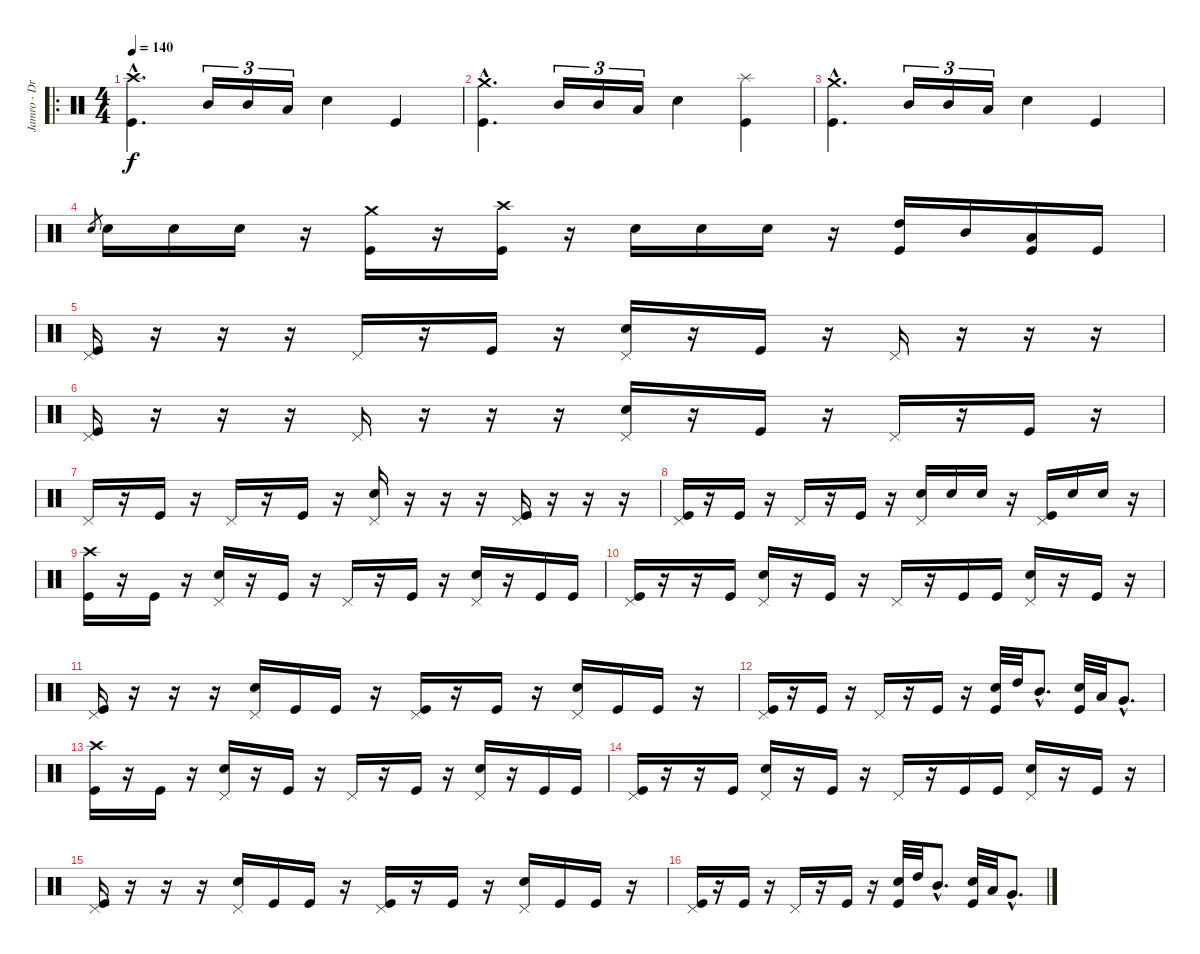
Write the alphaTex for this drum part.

\track ("Jamro - Drums" "Jamro - Dr") {instrument percussion}
\staff {score}
\articulation defaults
\ro
\ts (4 4)
\tempo 140
\clef neutral
\ks c
("Crash high (hit)"{hac} "Kick (hit)"{hac}).4{d dy f} "Mid Tom (hit)".16{tu (3 2)} "Mid Tom (hit)".16{tu (3 2)} "Low Tom (hit)".16{tu (3 2)} "Snare (hit) 2".4 "Kick (hit)".4 |
("Crash medium (hit)"{hac} "Kick (hit)"{hac}).4{d} "Mid Tom (hit)".16{tu (3 2)} "Mid Tom (hit)".16{tu (3 2)} "Low Tom (hit)".16{tu (3 2)} "Snare (hit) 2".4 ("Kick (hit)" "Splash (hit)").4 |
("Crash medium (hit)"{hac} "Kick (hit)"{hac}).4{d} "Mid Tom (hit)".16{tu (3 2)} "Mid Tom (hit)".16{tu (3 2)} "Low Tom (hit)".16{tu (3 2)} "Snare (hit) 2".4 "Kick (hit)".4 |
"Snare (hit) 2".8{gr} "Electric Snare (hit)".16 "Electric Snare (hit)".16 "Electric Snare (hit)".16 r.16 ("Kick (hit)" "Crash medium (hit)").16 r.16 ("Kick (hit)" "Crash high (hit)").16 r.16 "Electric Snare (hit)".16 "Electric Snare (hit)".16 "Electric Snare (hit)".16 r.16 ("Kick (hit)" "High Tom (hit)").16 "Mid Tom (hit)".16 ("Kick (hit)" "Low Tom (hit)").16 "Kick (hit)".16 |
("Kick (hit)" "Pedal Hi-Hat (hit)").16 r.16 r.16 r.16 "Pedal Hi-Hat (hit)".16 r.16 "Kick (hit)".16 r.16 ("Electric Snare (hit)" "Pedal Hi-Hat (hit)").16 r.16 "Kick (hit)".16 r.16 "Pedal Hi-Hat (hit)".16 r.16 r.16 r.16 |
("Kick (hit)" "Pedal Hi-Hat (hit)").16 r.16 r.16 r.16 "Pedal Hi-Hat (hit)".16 r.16 r.16 r.16 ("Electric Snare (hit)" "Pedal Hi-Hat (hit)").16 r.16 "Kick (hit)".16 r.16 "Pedal Hi-Hat (hit)".16 r.16 "Kick (hit)".16 r.16 |
"Pedal Hi-Hat (hit)".16 r.16 "Kick (hit)".16 r.16 "Pedal Hi-Hat (hit)".16 r.16 "Kick (hit)".16 r.16 ("Electric Snare (hit)" "Pedal Hi-Hat (hit)").16 r.16 r.16 r.16 ("Kick (hit)" "Pedal Hi-Hat (hit)").16 r.16 r.16 r.16 |
("Kick (hit)" "Pedal Hi-Hat (hit)").16 r.16 "Kick (hit)".16 r.16 "Pedal Hi-Hat (hit)".16 r.16 "Kick (hit)".16 r.16 ("Electric Snare (hit)" "Pedal Hi-Hat (hit)").16 "Electric Snare (hit)".16 "Electric Snare (hit)".16 r.16 ("Kick (hit)" "Pedal Hi-Hat (hit)").16 "Electric Snare (hit)".16 "Electric Snare (hit)".16 r.16 |
("Kick (hit)" "Crash high (hit)").16 r.16 "Kick (hit)".16 r.16 ("Electric Snare (hit)" "Pedal Hi-Hat (hit)").16 r.16 "Kick (hit)".16 r.16 "Pedal Hi-Hat (hit)".16 r.16 "Kick (hit)".16 r.16 ("Electric Snare (hit)" "Pedal Hi-Hat (hit)").16 r.16 "Kick (hit)".16 "Kick (hit)".16 |
("Kick (hit)" "Pedal Hi-Hat (hit)").16 r.16 r.16 "Kick (hit)".16 ("Electric Snare (hit)" "Pedal Hi-Hat (hit)").16 r.16 "Kick (hit)".16 r.16 "Pedal Hi-Hat (hit)".16 r.16 "Kick (hit)".16 "Kick (hit)".16 ("Electric Snare (hit)" "Pedal Hi-Hat (hit)").16 r.16 "Kick (hit)".16 r.16 |
("Kick (hit)" "Pedal Hi-Hat (hit)").16 r.16 r.16 r.16 ("Electric Snare (hit)" "Pedal Hi-Hat (hit)").16 "Kick (hit)".16 "Kick (hit)".16 r.16 ("Kick (hit)" "Pedal Hi-Hat (hit)").16 r.16 "Kick (hit)".16 r.16 ("Electric Snare (hit)" "Pedal Hi-Hat (hit)").16 "Kick (hit)".16 "Kick (hit)".16 r.16 |
("Kick (hit)" "Pedal Hi-Hat (hit)").16 r.16 "Kick (hit)".16 r.16 "Pedal Hi-Hat (hit)".16 r.16 "Kick (hit)".16 r.16 ("Electric Snare (hit)" "Kick (hit)").32 "High Tom (hit)".32 "Mid Tom (hit)"{hac}.8{d} ("Electric Snare (hit)" "Kick (hit)").32 "Low Tom (hit)".32 "Very Low Tom (hit)"{hac}.8{d} |
("Kick (hit)" "Crash high (hit)").16 r.16 "Kick (hit)".16 r.16 ("Electric Snare (hit)" "Pedal Hi-Hat (hit)").16 r.16 "Kick (hit)".16 r.16 "Pedal Hi-Hat (hit)".16 r.16 "Kick (hit)".16 r.16 ("Electric Snare (hit)" "Pedal Hi-Hat (hit)").16 r.16 "Kick (hit)".16 "Kick (hit)".16 |
("Kick (hit)" "Pedal Hi-Hat (hit)").16 r.16 r.16 "Kick (hit)".16 ("Electric Snare (hit)" "Pedal Hi-Hat (hit)").16 r.16 "Kick (hit)".16 r.16 "Pedal Hi-Hat (hit)".16 r.16 "Kick (hit)".16 "Kick (hit)".16 ("Electric Snare (hit)" "Pedal Hi-Hat (hit)").16 r.16 "Kick (hit)".16 r.16 |
("Kick (hit)" "Pedal Hi-Hat (hit)").16 r.16 r.16 r.16 ("Electric Snare (hit)" "Pedal Hi-Hat (hit)").16 "Kick (hit)".16 "Kick (hit)".16 r.16 ("Kick (hit)" "Pedal Hi-Hat (hit)").16 r.16 "Kick (hit)".16 r.16 ("Electric Snare (hit)" "Pedal Hi-Hat (hit)").16 "Kick (hit)".16 "Kick (hit)".16 r.16 |
("Kick (hit)" "Pedal Hi-Hat (hit)").16 r.16 "Kick (hit)".16 r.16 "Pedal Hi-Hat (hit)".16 r.16 "Kick (hit)".16 r.16 ("Electric Snare (hit)" "Kick (hit)").32 "High Tom (hit)".32 "Mid Tom (hit)"{hac}.8{d} ("Electric Snare (hit)" "Kick (hit)").32 "Low Tom (hit)".32 "Very Low Tom (hit)"{hac}.8{d}
